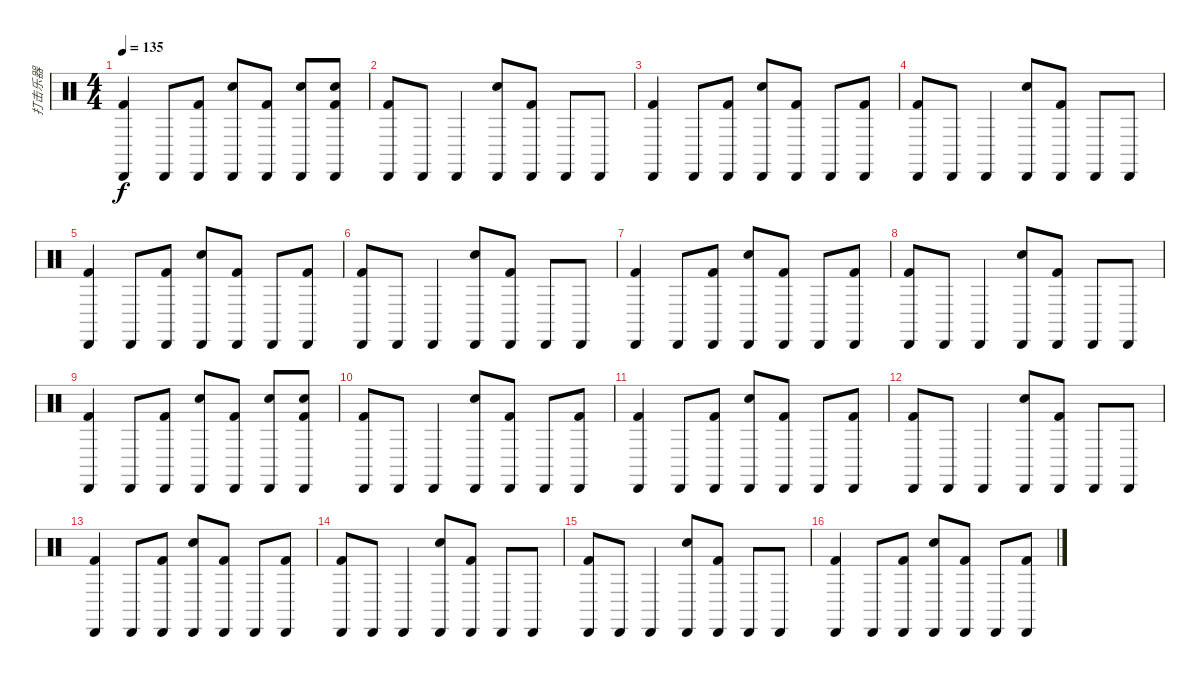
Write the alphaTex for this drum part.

\track ("打击乐器" "打击乐器") {instrument percussion}
\staff {score}
\articulation defaults
\ts (4 4)
\tempo 135
\clef neutral
\ks c
("Cabasa (hit)" "Kick (hit) 2").4{dy f} "Cabasa (hit)".8 ("Cabasa (hit)" "Kick (hit) 2").8 ("Snare (hit) 2" "Cabasa (hit)").8 ("Cabasa (hit)" "Kick (hit) 2").8 ("Snare (hit) 2" "Cabasa (hit)").8 ("Snare (hit) 2" "Cabasa (hit)" "Kick (hit) 2").8 |
("Cabasa (hit)" "Kick (hit) 2").8 "Cabasa (hit)".8 "Cabasa (hit)".4 ("Snare (hit) 2" "Cabasa (hit)").8 ("Cabasa (hit)" "Kick (hit) 2").8 "Cabasa (hit)".8 "Cabasa (hit)".8 |
("Cabasa (hit)" "Kick (hit) 2").4 "Cabasa (hit)".8 ("Cabasa (hit)" "Kick (hit) 2").8 ("Snare (hit) 2" "Cabasa (hit)").8 ("Cabasa (hit)" "Kick (hit) 2").8 "Cabasa (hit)".8 ("Cabasa (hit)" "Kick (hit) 2").8 |
("Cabasa (hit)" "Kick (hit) 2").8 "Cabasa (hit)".8 "Cabasa (hit)".4 ("Snare (hit) 2" "Cabasa (hit)").8 ("Cabasa (hit)" "Kick (hit) 2").8 "Cabasa (hit)".8 "Cabasa (hit)".8 |
("Cabasa (hit)" "Kick (hit) 2").4 "Cabasa (hit)".8 ("Cabasa (hit)" "Kick (hit) 2").8 ("Snare (hit) 2" "Cabasa (hit)").8 ("Cabasa (hit)" "Kick (hit) 2").8 "Cabasa (hit)".8 ("Cabasa (hit)" "Kick (hit) 2").8 |
("Cabasa (hit)" "Kick (hit) 2").8 "Cabasa (hit)".8 "Cabasa (hit)".4 ("Snare (hit) 2" "Cabasa (hit)").8 ("Cabasa (hit)" "Kick (hit) 2").8 "Cabasa (hit)".8 "Cabasa (hit)".8 |
("Cabasa (hit)" "Kick (hit) 2").4 "Cabasa (hit)".8 ("Cabasa (hit)" "Kick (hit) 2").8 ("Snare (hit) 2" "Cabasa (hit)").8 ("Cabasa (hit)" "Kick (hit) 2").8 "Cabasa (hit)".8 ("Cabasa (hit)" "Kick (hit) 2").8 |
("Cabasa (hit)" "Kick (hit) 2").8 "Cabasa (hit)".8 "Cabasa (hit)".4 ("Snare (hit) 2" "Cabasa (hit)").8 ("Cabasa (hit)" "Kick (hit) 2").8 "Cabasa (hit)".8 "Cabasa (hit)".8 |
("Cabasa (hit)" "Kick (hit) 2").4 "Cabasa (hit)".8 ("Cabasa (hit)" "Kick (hit) 2").8 ("Snare (hit) 2" "Cabasa (hit)").8 ("Cabasa (hit)" "Kick (hit) 2").8 ("Snare (hit) 2" "Cabasa (hit)").8 ("Snare (hit) 2" "Cabasa (hit)" "Kick (hit) 2").8 |
("Cabasa (hit)" "Kick (hit) 2").8 "Cabasa (hit)".8 "Cabasa (hit)".4 ("Snare (hit) 2" "Cabasa (hit)").8 ("Cabasa (hit)" "Kick (hit) 2").8 "Cabasa (hit)".8 ("Cabasa (hit)" "Kick (hit) 2").8 |
("Cabasa (hit)" "Kick (hit) 2").4 "Cabasa (hit)".8 ("Cabasa (hit)" "Kick (hit) 2").8 ("Snare (hit) 2" "Cabasa (hit)").8 ("Cabasa (hit)" "Kick (hit) 2").8 "Cabasa (hit)".8 ("Cabasa (hit)" "Kick (hit) 2").8 |
("Cabasa (hit)" "Kick (hit) 2").8 "Cabasa (hit)".8 "Cabasa (hit)".4 ("Snare (hit) 2" "Cabasa (hit)").8 ("Cabasa (hit)" "Kick (hit) 2").8 "Cabasa (hit)".8 "Cabasa (hit)".8 |
("Cabasa (hit)" "Kick (hit) 2").4 "Cabasa (hit)".8 ("Cabasa (hit)" "Kick (hit) 2").8 ("Snare (hit) 2" "Cabasa (hit)").8 ("Cabasa (hit)" "Kick (hit) 2").8 "Cabasa (hit)".8 ("Cabasa (hit)" "Kick (hit) 2").8 |
("Cabasa (hit)" "Kick (hit) 2").8 "Cabasa (hit)".8 "Cabasa (hit)".4 ("Snare (hit) 2" "Cabasa (hit)").8 ("Cabasa (hit)" "Kick (hit) 2").8 "Cabasa (hit)".8 "Cabasa (hit)".8 |
("Cabasa (hit)" "Kick (hit) 2").8 "Cabasa (hit)".8 "Cabasa (hit)".4 ("Snare (hit) 2" "Cabasa (hit)").8 ("Cabasa (hit)" "Kick (hit) 2").8 "Cabasa (hit)".8 "Cabasa (hit)".8 |
("Cabasa (hit)" "Kick (hit) 2").4 "Cabasa (hit)".8 ("Cabasa (hit)" "Kick (hit) 2").8 ("Snare (hit) 2" "Cabasa (hit)").8 ("Cabasa (hit)" "Kick (hit) 2").8 "Cabasa (hit)".8 ("Cabasa (hit)" "Kick (hit) 2").8
